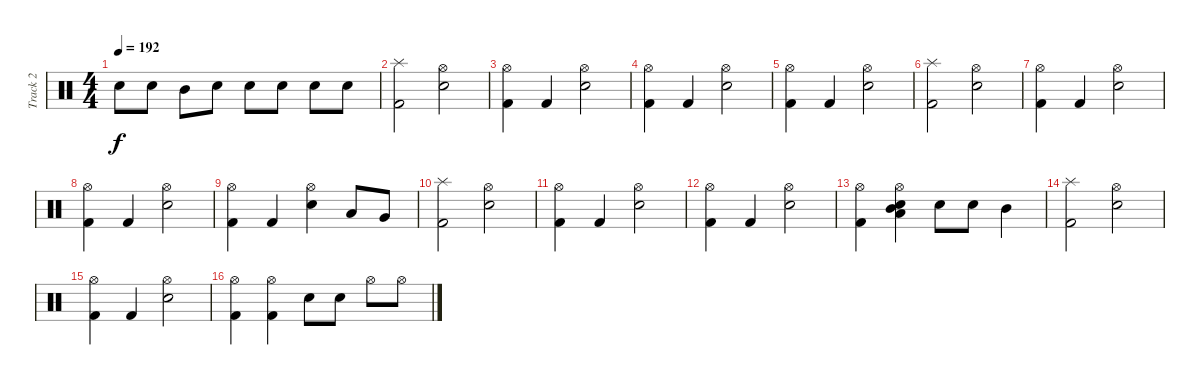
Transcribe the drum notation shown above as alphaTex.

\track ("Track 2" "Track 2") {instrument percussion}
\staff {score}
\articulation defaults
\ts (4 4)
\tempo 192
\clef neutral
\ks c "Electric Snare (hit)".8{dy f} "Electric Snare (hit)".8 "Mid Tom (hit)".8 "Electric Snare (hit)".8 "Electric Snare (hit)".8 "Electric Snare (hit)".8 "Electric Snare (hit)".8 "Electric Snare (hit)".8
|
("Splash (hit)" "Kick (hit) 2").2 ("Hi-Hat (open)" "Electric Snare (hit)").2 |
("Hi-Hat (open)" "Kick (hit) 2").4 "Kick (hit) 2".4 ("Hi-Hat (open)" "Electric Snare (hit)").2 |
("Hi-Hat (open)" "Kick (hit) 2").4 "Kick (hit) 2".4 ("Hi-Hat (open)" "Electric Snare (hit)").2 |
("Hi-Hat (open)" "Kick (hit) 2").4 "Kick (hit) 2".4 ("Hi-Hat (open)" "Electric Snare (hit)").2 |
("Splash (hit)" "Kick (hit) 2").2 ("Hi-Hat (open)" "Electric Snare (hit)").2 |
("Hi-Hat (open)" "Kick (hit) 2").4 "Kick (hit) 2".4 ("Hi-Hat (open)" "Electric Snare (hit)").2 |
("Hi-Hat (open)" "Kick (hit) 2").4 "Kick (hit) 2".4 ("Hi-Hat (open)" "Electric Snare (hit)").2 |
("Hi-Hat (open)" "Kick (hit) 2").4 "Kick (hit) 2".4 ("Hi-Hat (open)" "Electric Snare (hit)").4 "Low Tom (hit)".8 "Very Low Tom (hit)".8 |
("Splash (hit)" "Kick (hit) 2").2 ("Hi-Hat (open)" "Electric Snare (hit)").2 |
("Hi-Hat (open)" "Kick (hit) 2").4 "Kick (hit) 2".4 ("Hi-Hat (open)" "Electric Snare (hit)").2 |
("Hi-Hat (open)" "Kick (hit) 2").4 "Kick (hit) 2".4 ("Hi-Hat (open)" "Electric Snare (hit)").2 |
("Hi-Hat (open)" "Kick (hit) 2").4 ("Hi-Hat (open)" "Electric Snare (hit)" "Mid Tom (hit)" "Low Tom (hit)").4 "Electric Snare (hit)".8 "Electric Snare (hit)".8 "Mid Tom (hit)".4 |
("Splash (hit)" "Kick (hit) 2").2 ("Hi-Hat (open)" "Electric Snare (hit)").2 |
("Hi-Hat (open)" "Kick (hit) 2").4 "Kick (hit) 2".4 ("Hi-Hat (open)" "Electric Snare (hit)").2 |
("Hi-Hat (open)" "Kick (hit) 2").4 ("Hi-Hat (open)" "Kick (hit) 2").4 "Electric Snare (hit)".8 "Electric Snare (hit)".8 "Hi-Hat (open)".8 "Hi-Hat (open)".8
